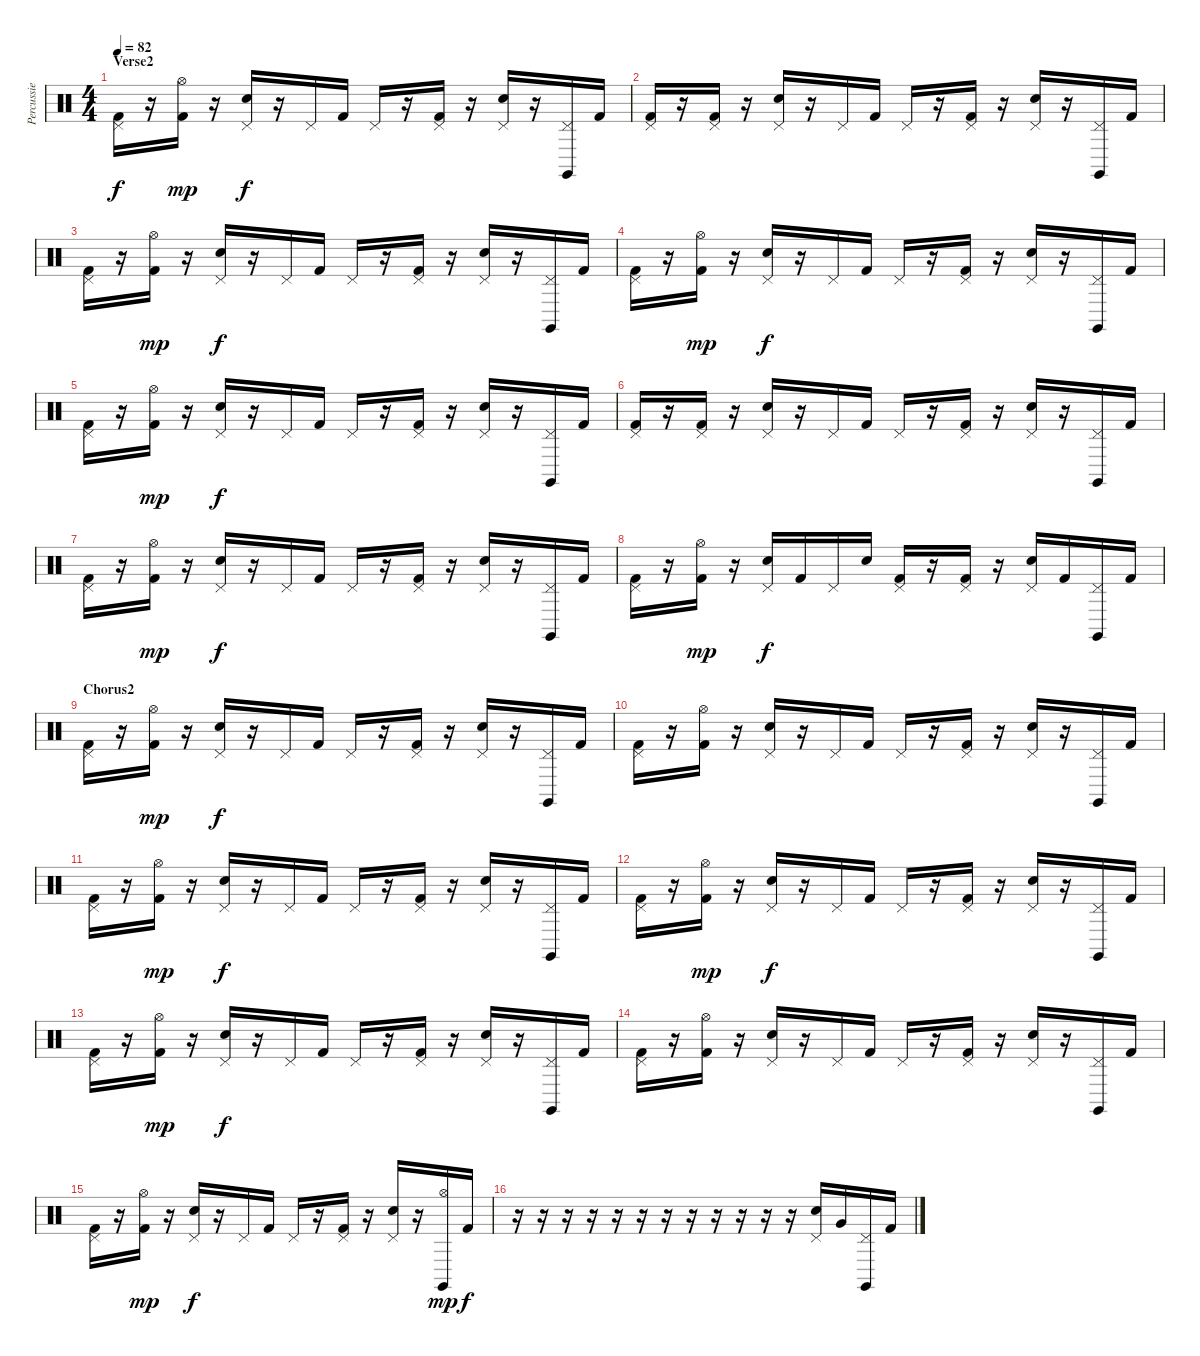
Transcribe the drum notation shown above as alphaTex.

\track ("Percussie" "Percussie") {instrument percussion}
\staff {score}
\articulation defaults
\ts (4 4)
\section ("" "Verse2")
\tempo 82
\clef neutral
\ks c
("Pedal Hi-Hat (hit)" "Kick (hit) 2").16{dy f} r.16 ("Hi-Hat (open)" "Kick (hit) 2").16{dy mp} r.16 ("Pedal Hi-Hat (hit)" "Electric Snare (hit)").16{dy f} r.16 "Pedal Hi-Hat (hit)".16 "Kick (hit) 2".16 "Pedal Hi-Hat (hit)".16 r.16 ("Pedal Hi-Hat (hit)" "Kick (hit) 2").16 r.16 ("Pedal Hi-Hat (hit)" "Electric Snare (hit)").16 r.16 ("Pedal Hi-Hat (hit)" "Claves (hit)").16 "Kick (hit) 2".16 |
("Pedal Hi-Hat (hit)" "Kick (hit) 2").16 r.16 ("Pedal Hi-Hat (hit)" "Kick (hit) 2").16 r.16 ("Pedal Hi-Hat (hit)" "Electric Snare (hit)").16 r.16 "Pedal Hi-Hat (hit)".16 "Kick (hit) 2".16 "Pedal Hi-Hat (hit)".16 r.16 ("Pedal Hi-Hat (hit)" "Kick (hit) 2").16 r.16 ("Pedal Hi-Hat (hit)" "Electric Snare (hit)").16 r.16 ("Pedal Hi-Hat (hit)" "Claves (hit)").16 "Kick (hit) 2".16 |
("Pedal Hi-Hat (hit)" "Kick (hit) 2").16 r.16 ("Hi-Hat (open)" "Kick (hit) 2").16{dy mp} r.16 ("Pedal Hi-Hat (hit)" "Electric Snare (hit)").16{dy f} r.16 "Pedal Hi-Hat (hit)".16 "Kick (hit) 2".16 "Pedal Hi-Hat (hit)".16 r.16 ("Pedal Hi-Hat (hit)" "Kick (hit) 2").16 r.16 ("Pedal Hi-Hat (hit)" "Electric Snare (hit)").16 r.16 ("Pedal Hi-Hat (hit)" "Claves (hit)").16 "Kick (hit) 2".16 |
("Pedal Hi-Hat (hit)" "Kick (hit) 2").16 r.16 ("Hi-Hat (open)" "Kick (hit) 2").16{dy mp} r.16 ("Pedal Hi-Hat (hit)" "Electric Snare (hit)").16{dy f} r.16 "Pedal Hi-Hat (hit)".16 "Kick (hit) 2".16 "Pedal Hi-Hat (hit)".16 r.16 ("Pedal Hi-Hat (hit)" "Kick (hit) 2").16 r.16 ("Pedal Hi-Hat (hit)" "Electric Snare (hit)").16 r.16 ("Pedal Hi-Hat (hit)" "Claves (hit)").16 "Kick (hit) 2".16 |
("Pedal Hi-Hat (hit)" "Kick (hit) 2").16 r.16 ("Hi-Hat (open)" "Kick (hit) 2").16{dy mp} r.16 ("Pedal Hi-Hat (hit)" "Electric Snare (hit)").16{dy f} r.16 "Pedal Hi-Hat (hit)".16 "Kick (hit) 2".16 "Pedal Hi-Hat (hit)".16 r.16 ("Pedal Hi-Hat (hit)" "Kick (hit) 2").16 r.16 ("Pedal Hi-Hat (hit)" "Electric Snare (hit)").16 r.16 ("Pedal Hi-Hat (hit)" "Claves (hit)").16 "Kick (hit) 2".16 |
("Pedal Hi-Hat (hit)" "Kick (hit) 2").16 r.16 ("Pedal Hi-Hat (hit)" "Kick (hit) 2").16 r.16 ("Pedal Hi-Hat (hit)" "Electric Snare (hit)").16 r.16 "Pedal Hi-Hat (hit)".16 "Kick (hit) 2".16 "Pedal Hi-Hat (hit)".16 r.16 ("Pedal Hi-Hat (hit)" "Kick (hit) 2").16 r.16 ("Pedal Hi-Hat (hit)" "Electric Snare (hit)").16 r.16 ("Pedal Hi-Hat (hit)" "Claves (hit)").16 "Kick (hit) 2".16 |
("Pedal Hi-Hat (hit)" "Kick (hit) 2").16 r.16 ("Hi-Hat (open)" "Kick (hit) 2").16{dy mp} r.16 ("Pedal Hi-Hat (hit)" "Electric Snare (hit)").16{dy f} r.16 "Pedal Hi-Hat (hit)".16 "Kick (hit) 2".16 "Pedal Hi-Hat (hit)".16 r.16 ("Pedal Hi-Hat (hit)" "Kick (hit) 2").16 r.16 ("Pedal Hi-Hat (hit)" "Electric Snare (hit)").16 r.16 ("Pedal Hi-Hat (hit)" "Claves (hit)").16 "Kick (hit) 2".16 |
("Pedal Hi-Hat (hit)" "Kick (hit) 2").16 r.16 ("Hi-Hat (open)" "Kick (hit) 2").16{dy mp} r.16 ("Pedal Hi-Hat (hit)" "Electric Snare (hit)").16{dy f} "Kick (hit) 2".16 "Pedal Hi-Hat (hit)".16 "Electric Snare (hit)".16 ("Pedal Hi-Hat (hit)" "Kick (hit) 2").16 r.16 ("Pedal Hi-Hat (hit)" "Kick (hit) 2").16 r.16 ("Pedal Hi-Hat (hit)" "Electric Snare (hit)").16 "Kick (hit) 2".16 ("Pedal Hi-Hat (hit)" "Claves (hit)").16 "Kick (hit) 2".16 |
\section ("" "Chorus2")
("Pedal Hi-Hat (hit)" "Kick (hit) 2").16 r.16 ("Hi-Hat (open)" "Kick (hit) 2").16{dy mp} r.16 ("Pedal Hi-Hat (hit)" "Electric Snare (hit)").16{dy f} r.16 "Pedal Hi-Hat (hit)".16 "Kick (hit) 2".16 "Pedal Hi-Hat (hit)".16 r.16 ("Pedal Hi-Hat (hit)" "Kick (hit) 2").16 r.16 ("Pedal Hi-Hat (hit)" "Electric Snare (hit)").16 r.16 ("Pedal Hi-Hat (hit)" "Claves (hit)").16 "Kick (hit) 2".16 |
("Pedal Hi-Hat (hit)" "Kick (hit) 2").16 r.16 ("Hi-Hat (open)" "Kick (hit) 2").16 r.16 ("Pedal Hi-Hat (hit)" "Electric Snare (hit)").16 r.16 "Pedal Hi-Hat (hit)".16 "Kick (hit) 2".16 "Pedal Hi-Hat (hit)".16 r.16 ("Pedal Hi-Hat (hit)" "Kick (hit) 2").16 r.16 ("Pedal Hi-Hat (hit)" "Electric Snare (hit)").16 r.16 ("Pedal Hi-Hat (hit)" "Claves (hit)").16 "Kick (hit) 2".16 |
("Pedal Hi-Hat (hit)" "Kick (hit) 2").16 r.16 ("Hi-Hat (open)" "Kick (hit) 2").16{dy mp} r.16 ("Pedal Hi-Hat (hit)" "Electric Snare (hit)").16{dy f} r.16 "Pedal Hi-Hat (hit)".16 "Kick (hit) 2".16 "Pedal Hi-Hat (hit)".16 r.16 ("Pedal Hi-Hat (hit)" "Kick (hit) 2").16 r.16 ("Pedal Hi-Hat (hit)" "Electric Snare (hit)").16 r.16 ("Pedal Hi-Hat (hit)" "Claves (hit)").16 "Kick (hit) 2".16 |
("Pedal Hi-Hat (hit)" "Kick (hit) 2").16 r.16 ("Hi-Hat (open)" "Kick (hit) 2").16{dy mp} r.16 ("Pedal Hi-Hat (hit)" "Electric Snare (hit)").16{dy f} r.16 "Pedal Hi-Hat (hit)".16 "Kick (hit) 2".16 "Pedal Hi-Hat (hit)".16 r.16 ("Pedal Hi-Hat (hit)" "Kick (hit) 2").16 r.16 ("Pedal Hi-Hat (hit)" "Electric Snare (hit)").16 r.16 ("Pedal Hi-Hat (hit)" "Claves (hit)").16 "Kick (hit) 2".16 |
("Pedal Hi-Hat (hit)" "Kick (hit) 2").16 r.16 ("Hi-Hat (open)" "Kick (hit) 2").16{dy mp} r.16 ("Pedal Hi-Hat (hit)" "Electric Snare (hit)").16{dy f} r.16 "Pedal Hi-Hat (hit)".16 "Kick (hit) 2".16 "Pedal Hi-Hat (hit)".16 r.16 ("Pedal Hi-Hat (hit)" "Kick (hit) 2").16 r.16 ("Pedal Hi-Hat (hit)" "Electric Snare (hit)").16 r.16 ("Pedal Hi-Hat (hit)" "Claves (hit)").16 "Kick (hit) 2".16 |
("Pedal Hi-Hat (hit)" "Kick (hit) 2").16 r.16 ("Hi-Hat (open)" "Kick (hit) 2").16 r.16 ("Pedal Hi-Hat (hit)" "Electric Snare (hit)").16 r.16 "Pedal Hi-Hat (hit)".16 "Kick (hit) 2".16 "Pedal Hi-Hat (hit)".16 r.16 ("Pedal Hi-Hat (hit)" "Kick (hit) 2").16 r.16 ("Pedal Hi-Hat (hit)" "Electric Snare (hit)").16 r.16 ("Pedal Hi-Hat (hit)" "Claves (hit)").16 "Kick (hit) 2".16 |
("Pedal Hi-Hat (hit)" "Kick (hit) 2").16 r.16 ("Hi-Hat (open)" "Kick (hit) 2").16{dy mp} r.16 ("Pedal Hi-Hat (hit)" "Electric Snare (hit)").16{dy f} r.16 "Pedal Hi-Hat (hit)".16 "Kick (hit) 2".16 "Pedal Hi-Hat (hit)".16 r.16 ("Pedal Hi-Hat (hit)" "Kick (hit) 2").16 r.16 ("Pedal Hi-Hat (hit)" "Electric Snare (hit)").16 r.16 ("Hi-Hat (open)" "Claves (hit)").16{dy mp} "Kick (hit) 2".16{dy f} |
r.16 r.16 r.16 r.16 r.16 r.16 r.16 r.16 r.16 r.16 r.16 r.16 ("Pedal Hi-Hat (hit)" "Electric Snare (hit)").16 "Very Low Tom (hit)".16 ("Pedal Hi-Hat (hit)" "Claves (hit)").16 "Kick (hit) 2".16
